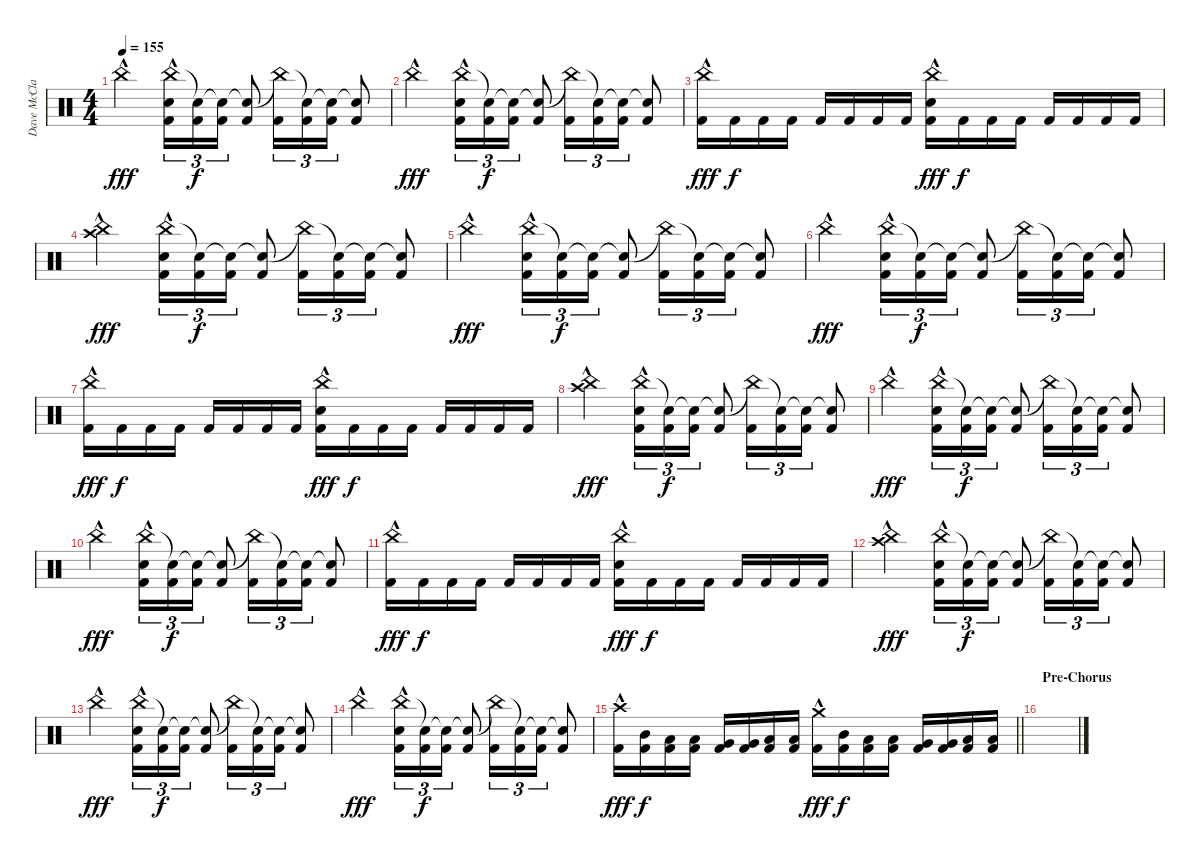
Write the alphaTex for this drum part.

\track ("Dave McClain (Drums)" "Dave McCla") {instrument percussion}
\staff {score}
\articulation defaults
\ts (4 4)
\tempo 155
\clef neutral
\ks c "China (hit)"{hac}.2{dy fff}
("China (hit)"{hac} "Electric Snare (hit)" "Kick (hit) 2").16{tu (3 2)} ("Snare (hit)"{t} "Kick (hit) 2").16{tu (3 2) dy f} ("Snare (hit)"{t} "Kick (hit) 2").16{tu (3 2)} ("Snare (hit)"{t} "Kick (hit) 2").8 ("China (hit)"{t} "Kick (hit) 2").16{tu (3 2)} ("Snare (hit)"{t} "Kick (hit) 2").16{tu (3 2)} ("Snare (hit)"{t} "Kick (hit) 2").16{tu (3 2)} ("Snare (hit)"{t} "Kick (hit) 2").8 |
"China (hit)"{hac}.2{dy fff} ("China (hit)"{hac} "Electric Snare (hit)" "Kick (hit) 2").16{tu (3 2)} ("Snare (hit)"{t} "Kick (hit) 2").16{tu (3 2) dy f} ("Snare (hit)"{t} "Kick (hit) 2").16{tu (3 2)} ("Snare (hit)"{t} "Kick (hit) 2").8 ("China (hit)"{t} "Kick (hit) 2").16{tu (3 2)} ("Snare (hit)"{t} "Kick (hit) 2").16{tu (3 2)} ("Snare (hit)"{t} "Kick (hit) 2").16{tu (3 2)} ("Snare (hit)"{t} "Kick (hit) 2").8 |
("China (hit)"{hac} "Kick (hit) 2").16{dy fff} "Kick (hit) 2".16{dy f} "Kick (hit) 2".16 "Kick (hit) 2".16 "Kick (hit) 2".16 "Kick (hit) 2".16 "Kick (hit) 2".16 "Kick (hit) 2".16 ("China (hit)"{hac} "Electric Snare (hit)" "Kick (hit) 2").16{dy fff} "Kick (hit) 2".16{dy f} "Kick (hit) 2".16 "Kick (hit) 2".16 "Kick (hit) 2".16 "Kick (hit) 2".16 "Kick (hit) 2".16 "Kick (hit) 2".16 |
("China (hit)"{hac} "Crash high (hit)").2{dy fff} ("China (hit)"{hac} "Electric Snare (hit)" "Kick (hit) 2").16{tu (3 2)} ("Snare (hit)"{t} "Kick (hit) 2").16{tu (3 2) dy f} ("Snare (hit)"{t} "Kick (hit) 2").16{tu (3 2)} ("Snare (hit)"{t} "Kick (hit) 2").8 ("China (hit)"{t} "Kick (hit) 2").16{tu (3 2)} ("Snare (hit)"{t} "Kick (hit) 2").16{tu (3 2)} ("Snare (hit)"{t} "Kick (hit) 2").16{tu (3 2)} ("Snare (hit)"{t} "Kick (hit) 2").8 |
"China (hit)"{hac}.2{dy fff} ("China (hit)"{hac} "Electric Snare (hit)" "Kick (hit) 2").16{tu (3 2)} ("Snare (hit)"{t} "Kick (hit) 2").16{tu (3 2) dy f} ("Snare (hit)"{t} "Kick (hit) 2").16{tu (3 2)} ("Snare (hit)"{t} "Kick (hit) 2").8 ("China (hit)"{t} "Kick (hit) 2").16{tu (3 2)} ("Snare (hit)"{t} "Kick (hit) 2").16{tu (3 2)} ("Snare (hit)"{t} "Kick (hit) 2").16{tu (3 2)} ("Snare (hit)"{t} "Kick (hit) 2").8 |
"China (hit)"{hac}.2{dy fff} ("China (hit)"{hac} "Electric Snare (hit)" "Kick (hit) 2").16{tu (3 2)} ("Snare (hit)"{t} "Kick (hit) 2").16{tu (3 2) dy f} ("Snare (hit)"{t} "Kick (hit) 2").16{tu (3 2)} ("Snare (hit)"{t} "Kick (hit) 2").8 ("China (hit)"{t} "Kick (hit) 2").16{tu (3 2)} ("Snare (hit)"{t} "Kick (hit) 2").16{tu (3 2)} ("Snare (hit)"{t} "Kick (hit) 2").16{tu (3 2)} ("Snare (hit)"{t} "Kick (hit) 2").8 |
("China (hit)"{hac} "Kick (hit) 2").16{dy fff} "Kick (hit) 2".16{dy f} "Kick (hit) 2".16 "Kick (hit) 2".16 "Kick (hit) 2".16 "Kick (hit) 2".16 "Kick (hit) 2".16 "Kick (hit) 2".16 ("China (hit)"{hac} "Electric Snare (hit)" "Kick (hit) 2").16{dy fff} "Kick (hit) 2".16{dy f} "Kick (hit) 2".16 "Kick (hit) 2".16 "Kick (hit) 2".16 "Kick (hit) 2".16 "Kick (hit) 2".16 "Kick (hit) 2".16 |
("China (hit)"{hac} "Crash high (hit)").2{dy fff} ("China (hit)"{hac} "Electric Snare (hit)" "Kick (hit) 2").16{tu (3 2)} ("Snare (hit)"{t} "Kick (hit) 2").16{tu (3 2) dy f} ("Snare (hit)"{t} "Kick (hit) 2").16{tu (3 2)} ("Snare (hit)"{t} "Kick (hit) 2").8 ("China (hit)"{t} "Kick (hit) 2").16{tu (3 2)} ("Snare (hit)"{t} "Kick (hit) 2").16{tu (3 2)} ("Snare (hit)"{t} "Kick (hit) 2").16{tu (3 2)} ("Snare (hit)"{t} "Kick (hit) 2").8 |
"China (hit)"{hac}.2{dy fff} ("China (hit)"{hac} "Electric Snare (hit)" "Kick (hit) 2").16{tu (3 2)} ("Snare (hit)"{t} "Kick (hit) 2").16{tu (3 2) dy f} ("Snare (hit)"{t} "Kick (hit) 2").16{tu (3 2)} ("Snare (hit)"{t} "Kick (hit) 2").8 ("China (hit)"{t} "Kick (hit) 2").16{tu (3 2)} ("Snare (hit)"{t} "Kick (hit) 2").16{tu (3 2)} ("Snare (hit)"{t} "Kick (hit) 2").16{tu (3 2)} ("Snare (hit)"{t} "Kick (hit) 2").8 |
"China (hit)"{hac}.2{dy fff} ("China (hit)"{hac} "Electric Snare (hit)" "Kick (hit) 2").16{tu (3 2)} ("Snare (hit)"{t} "Kick (hit) 2").16{tu (3 2) dy f} ("Snare (hit)"{t} "Kick (hit) 2").16{tu (3 2)} ("Snare (hit)"{t} "Kick (hit) 2").8 ("China (hit)"{t} "Kick (hit) 2").16{tu (3 2)} ("Snare (hit)"{t} "Kick (hit) 2").16{tu (3 2)} ("Snare (hit)"{t} "Kick (hit) 2").16{tu (3 2)} ("Snare (hit)"{t} "Kick (hit) 2").8 |
("China (hit)"{hac} "Kick (hit) 2").16{dy fff} "Kick (hit) 2".16{dy f} "Kick (hit) 2".16 "Kick (hit) 2".16 "Kick (hit) 2".16 "Kick (hit) 2".16 "Kick (hit) 2".16 "Kick (hit) 2".16 ("China (hit)"{hac} "Electric Snare (hit)" "Kick (hit) 2").16{dy fff} "Kick (hit) 2".16{dy f} "Kick (hit) 2".16 "Kick (hit) 2".16 "Kick (hit) 2".16 "Kick (hit) 2".16 "Kick (hit) 2".16 "Kick (hit) 2".16 |
("China (hit)"{hac} "Crash high (hit)").2{dy fff} ("China (hit)"{hac} "Electric Snare (hit)" "Kick (hit) 2").16{tu (3 2)} ("Snare (hit)"{t} "Kick (hit) 2").16{tu (3 2) dy f} ("Snare (hit)"{t} "Kick (hit) 2").16{tu (3 2)} ("Snare (hit)"{t} "Kick (hit) 2").8 ("China (hit)"{t} "Kick (hit) 2").16{tu (3 2)} ("Snare (hit)"{t} "Kick (hit) 2").16{tu (3 2)} ("Snare (hit)"{t} "Kick (hit) 2").16{tu (3 2)} ("Snare (hit)"{t} "Kick (hit) 2").8 |
"China (hit)"{hac}.2{dy fff} ("China (hit)"{hac} "Electric Snare (hit)" "Kick (hit) 2").16{tu (3 2)} ("Snare (hit)"{t} "Kick (hit) 2").16{tu (3 2) dy f} ("Snare (hit)"{t} "Kick (hit) 2").16{tu (3 2)} ("Snare (hit)"{t} "Kick (hit) 2").8 ("China (hit)"{t} "Kick (hit) 2").16{tu (3 2)} ("Snare (hit)"{t} "Kick (hit) 2").16{tu (3 2)} ("Snare (hit)"{t} "Kick (hit) 2").16{tu (3 2)} ("Snare (hit)"{t} "Kick (hit) 2").8 |
"China (hit)"{hac}.2{dy fff} ("China (hit)"{hac} "Electric Snare (hit)" "Kick (hit) 2").16{tu (3 2)} ("Snare (hit)"{t} "Kick (hit) 2").16{tu (3 2) dy f} ("Snare (hit)"{t} "Kick (hit) 2").16{tu (3 2)} ("Snare (hit)"{t} "Kick (hit) 2").8 ("China (hit)"{t} "Kick (hit) 2").16{tu (3 2)} ("Snare (hit)"{t} "Kick (hit) 2").16{tu (3 2)} ("Snare (hit)"{t} "Kick (hit) 2").16{tu (3 2)} ("Snare (hit)"{t} "Kick (hit) 2").8 |
\barLineRight lightlight
("Crash high (hit)"{hac} "Kick (hit) 2").16{dy fff} ("Mid Tom (hit)" "Kick (hit) 2").16{dy f} ("Low Tom (hit)" "Kick (hit) 2").16 ("Low Tom (hit)" "Kick (hit) 2").16 ("Very Low Tom (hit)" "Kick (hit) 2").16 ("Very Low Tom (hit)" "Kick (hit) 2").16 ("Low Floor Tom (hit)" "Kick (hit) 2").16 ("Low Floor Tom (hit)" "Kick (hit) 2").16 ("Crash medium (hit)"{hac} "Kick (hit) 2").16{dy fff} ("Mid Tom (hit)" "Kick (hit) 2").16{dy f} ("Low Tom (hit)" "Kick (hit) 2").16 ("Low Tom (hit)" "Kick (hit) 2").16 ("Very Low Tom (hit)" "Kick (hit) 2").16 ("Very Low Tom (hit)" "Kick (hit) 2").16 ("Low Floor Tom (hit)" "Kick (hit) 2").16 ("Low Floor Tom (hit)" "Kick (hit) 2").16 |
\section ("" "Pre-Chorus")
